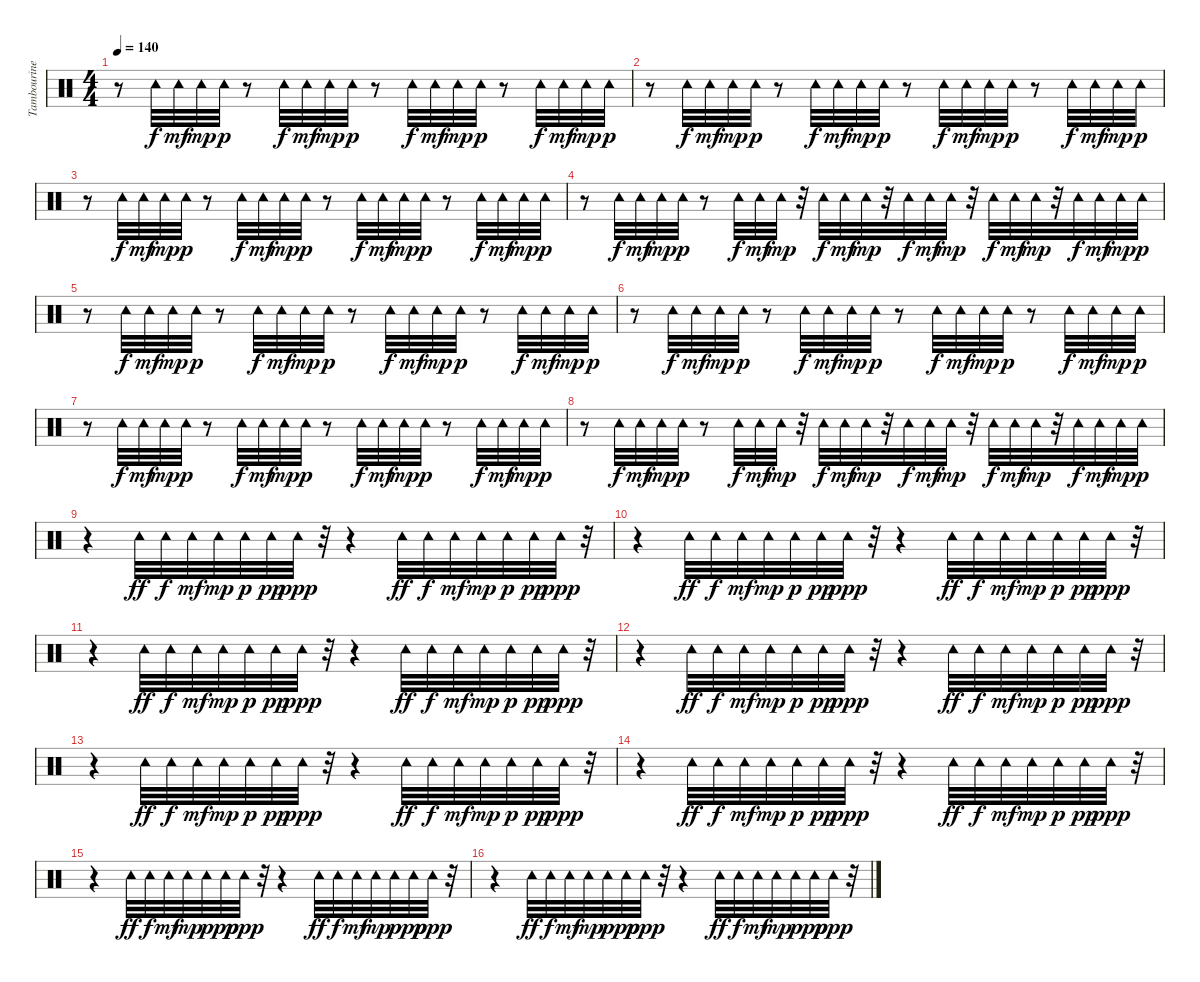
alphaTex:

\track ("Tambourine" "Tambourine") {instrument percussion}
\staff {score}
\articulation defaults
\ts (4 4)
\tempo 140
\clef neutral
\ks c
r.8{dy ppp} "Tambourine (hit)".32{dy f} "Tambourine (hit)".32{dy mf} "Tambourine (hit)".32{dy mp} "Tambourine (hit)".32{dy p} r.8 "Tambourine (hit)".32{dy f} "Tambourine (hit)".32{dy mf} "Tambourine (hit)".32{dy mp} "Tambourine (hit)".32{dy p} r.8 "Tambourine (hit)".32{dy f} "Tambourine (hit)".32{dy mf} "Tambourine (hit)".32{dy mp} "Tambourine (hit)".32{dy p} r.8 "Tambourine (hit)".32{dy f} "Tambourine (hit)".32{dy mf} "Tambourine (hit)".32{dy mp} "Tambourine (hit)".32{dy p} |
r.8 "Tambourine (hit)".32{dy f} "Tambourine (hit)".32{dy mf} "Tambourine (hit)".32{dy mp} "Tambourine (hit)".32{dy p} r.8 "Tambourine (hit)".32{dy f} "Tambourine (hit)".32{dy mf} "Tambourine (hit)".32{dy mp} "Tambourine (hit)".32{dy p} r.8 "Tambourine (hit)".32{dy f} "Tambourine (hit)".32{dy mf} "Tambourine (hit)".32{dy mp} "Tambourine (hit)".32{dy p} r.8 "Tambourine (hit)".32{dy f} "Tambourine (hit)".32{dy mf} "Tambourine (hit)".32{dy mp} "Tambourine (hit)".32{dy p} |
r.8 "Tambourine (hit)".32{dy f} "Tambourine (hit)".32{dy mf} "Tambourine (hit)".32{dy mp} "Tambourine (hit)".32{dy p} r.8 "Tambourine (hit)".32{dy f} "Tambourine (hit)".32{dy mf} "Tambourine (hit)".32{dy mp} "Tambourine (hit)".32{dy p} r.8 "Tambourine (hit)".32{dy f} "Tambourine (hit)".32{dy mf} "Tambourine (hit)".32{dy mp} "Tambourine (hit)".32{dy p} r.8 "Tambourine (hit)".32{dy f} "Tambourine (hit)".32{dy mf} "Tambourine (hit)".32{dy mp} "Tambourine (hit)".32{dy p} |
r.8 "Tambourine (hit)".32{dy f} "Tambourine (hit)".32{dy mf} "Tambourine (hit)".32{dy mp} "Tambourine (hit)".32{dy p} r.8 "Tambourine (hit)".32{dy f} "Tambourine (hit)".32{dy mf} "Tambourine (hit)".32{dy mp} r.32 "Tambourine (hit)".32{dy f} "Tambourine (hit)".32{dy mf} "Tambourine (hit)".32{dy mp} r.32 "Tambourine (hit)".32{dy f} "Tambourine (hit)".32{dy mf} "Tambourine (hit)".32{dy mp} r.32 "Tambourine (hit)".32{dy f} "Tambourine (hit)".32{dy mf} "Tambourine (hit)".32{dy mp} r.32 "Tambourine (hit)".32{dy f} "Tambourine (hit)".32{dy mf} "Tambourine (hit)".32{dy mp} "Tambourine (hit)".32{dy p} |
r.8 "Tambourine (hit)".32{dy f} "Tambourine (hit)".32{dy mf} "Tambourine (hit)".32{dy mp} "Tambourine (hit)".32{dy p} r.8 "Tambourine (hit)".32{dy f} "Tambourine (hit)".32{dy mf} "Tambourine (hit)".32{dy mp} "Tambourine (hit)".32{dy p} r.8 "Tambourine (hit)".32{dy f} "Tambourine (hit)".32{dy mf} "Tambourine (hit)".32{dy mp} "Tambourine (hit)".32{dy p} r.8 "Tambourine (hit)".32{dy f} "Tambourine (hit)".32{dy mf} "Tambourine (hit)".32{dy mp} "Tambourine (hit)".32{dy p} |
r.8 "Tambourine (hit)".32{dy f} "Tambourine (hit)".32{dy mf} "Tambourine (hit)".32{dy mp} "Tambourine (hit)".32{dy p} r.8 "Tambourine (hit)".32{dy f} "Tambourine (hit)".32{dy mf} "Tambourine (hit)".32{dy mp} "Tambourine (hit)".32{dy p} r.8 "Tambourine (hit)".32{dy f} "Tambourine (hit)".32{dy mf} "Tambourine (hit)".32{dy mp} "Tambourine (hit)".32{dy p} r.8 "Tambourine (hit)".32{dy f} "Tambourine (hit)".32{dy mf} "Tambourine (hit)".32{dy mp} "Tambourine (hit)".32{dy p} |
r.8 "Tambourine (hit)".32{dy f} "Tambourine (hit)".32{dy mf} "Tambourine (hit)".32{dy mp} "Tambourine (hit)".32{dy p} r.8 "Tambourine (hit)".32{dy f} "Tambourine (hit)".32{dy mf} "Tambourine (hit)".32{dy mp} "Tambourine (hit)".32{dy p} r.8 "Tambourine (hit)".32{dy f} "Tambourine (hit)".32{dy mf} "Tambourine (hit)".32{dy mp} "Tambourine (hit)".32{dy p} r.8 "Tambourine (hit)".32{dy f} "Tambourine (hit)".32{dy mf} "Tambourine (hit)".32{dy mp} "Tambourine (hit)".32{dy p} |
r.8 "Tambourine (hit)".32{dy f} "Tambourine (hit)".32{dy mf} "Tambourine (hit)".32{dy mp} "Tambourine (hit)".32{dy p} r.8 "Tambourine (hit)".32{dy f} "Tambourine (hit)".32{dy mf} "Tambourine (hit)".32{dy mp} r.32 "Tambourine (hit)".32{dy f} "Tambourine (hit)".32{dy mf} "Tambourine (hit)".32{dy mp} r.32 "Tambourine (hit)".32{dy f} "Tambourine (hit)".32{dy mf} "Tambourine (hit)".32{dy mp} r.32 "Tambourine (hit)".32{dy f} "Tambourine (hit)".32{dy mf} "Tambourine (hit)".32{dy mp} r.32 "Tambourine (hit)".32{dy f} "Tambourine (hit)".32{dy mf} "Tambourine (hit)".32{dy mp} "Tambourine (hit)".32{dy p} |
r.4 "Tambourine (hit)".32{dy ff} "Tambourine (hit)".32{dy f} "Tambourine (hit)".32{dy mf} "Tambourine (hit)".32{dy mp} "Tambourine (hit)".32{dy p} "Tambourine (hit)".32{dy pp} "Tambourine (hit)".32{dy ppp} r.32 r.4 "Tambourine (hit)".32{dy ff} "Tambourine (hit)".32{dy f} "Tambourine (hit)".32{dy mf} "Tambourine (hit)".32{dy mp} "Tambourine (hit)".32{dy p} "Tambourine (hit)".32{dy pp} "Tambourine (hit)".32{dy ppp} r.32 |
r.4 "Tambourine (hit)".32{dy ff} "Tambourine (hit)".32{dy f} "Tambourine (hit)".32{dy mf} "Tambourine (hit)".32{dy mp} "Tambourine (hit)".32{dy p} "Tambourine (hit)".32{dy pp} "Tambourine (hit)".32{dy ppp} r.32 r.4 "Tambourine (hit)".32{dy ff} "Tambourine (hit)".32{dy f} "Tambourine (hit)".32{dy mf} "Tambourine (hit)".32{dy mp} "Tambourine (hit)".32{dy p} "Tambourine (hit)".32{dy pp} "Tambourine (hit)".32{dy ppp} r.32 |
r.4 "Tambourine (hit)".32{dy ff} "Tambourine (hit)".32{dy f} "Tambourine (hit)".32{dy mf} "Tambourine (hit)".32{dy mp} "Tambourine (hit)".32{dy p} "Tambourine (hit)".32{dy pp} "Tambourine (hit)".32{dy ppp} r.32 r.4 "Tambourine (hit)".32{dy ff} "Tambourine (hit)".32{dy f} "Tambourine (hit)".32{dy mf} "Tambourine (hit)".32{dy mp} "Tambourine (hit)".32{dy p} "Tambourine (hit)".32{dy pp} "Tambourine (hit)".32{dy ppp} r.32 |
r.4 "Tambourine (hit)".32{dy ff} "Tambourine (hit)".32{dy f} "Tambourine (hit)".32{dy mf} "Tambourine (hit)".32{dy mp} "Tambourine (hit)".32{dy p} "Tambourine (hit)".32{dy pp} "Tambourine (hit)".32{dy ppp} r.32 r.4 "Tambourine (hit)".32{dy ff} "Tambourine (hit)".32{dy f} "Tambourine (hit)".32{dy mf} "Tambourine (hit)".32{dy mp} "Tambourine (hit)".32{dy p} "Tambourine (hit)".32{dy pp} "Tambourine (hit)".32{dy ppp} r.32 |
r.4 "Tambourine (hit)".32{dy ff} "Tambourine (hit)".32{dy f} "Tambourine (hit)".32{dy mf} "Tambourine (hit)".32{dy mp} "Tambourine (hit)".32{dy p} "Tambourine (hit)".32{dy pp} "Tambourine (hit)".32{dy ppp} r.32 r.4 "Tambourine (hit)".32{dy ff} "Tambourine (hit)".32{dy f} "Tambourine (hit)".32{dy mf} "Tambourine (hit)".32{dy mp} "Tambourine (hit)".32{dy p} "Tambourine (hit)".32{dy pp} "Tambourine (hit)".32{dy ppp} r.32 |
r.4 "Tambourine (hit)".32{dy ff} "Tambourine (hit)".32{dy f} "Tambourine (hit)".32{dy mf} "Tambourine (hit)".32{dy mp} "Tambourine (hit)".32{dy p} "Tambourine (hit)".32{dy pp} "Tambourine (hit)".32{dy ppp} r.32 r.4 "Tambourine (hit)".32{dy ff} "Tambourine (hit)".32{dy f} "Tambourine (hit)".32{dy mf} "Tambourine (hit)".32{dy mp} "Tambourine (hit)".32{dy p} "Tambourine (hit)".32{dy pp} "Tambourine (hit)".32{dy ppp} r.32 |
r.4 "Tambourine (hit)".32{dy ff} "Tambourine (hit)".32{dy f} "Tambourine (hit)".32{dy mf} "Tambourine (hit)".32{dy mp} "Tambourine (hit)".32{dy p} "Tambourine (hit)".32{dy pp} "Tambourine (hit)".32{dy ppp} r.32 r.4 "Tambourine (hit)".32{dy ff} "Tambourine (hit)".32{dy f} "Tambourine (hit)".32{dy mf} "Tambourine (hit)".32{dy mp} "Tambourine (hit)".32{dy p} "Tambourine (hit)".32{dy pp} "Tambourine (hit)".32{dy ppp} r.32 |
r.4 "Tambourine (hit)".32{dy ff} "Tambourine (hit)".32{dy f} "Tambourine (hit)".32{dy mf} "Tambourine (hit)".32{dy mp} "Tambourine (hit)".32{dy p} "Tambourine (hit)".32{dy pp} "Tambourine (hit)".32{dy ppp} r.32 r.4 "Tambourine (hit)".32{dy ff} "Tambourine (hit)".32{dy f} "Tambourine (hit)".32{dy mf} "Tambourine (hit)".32{dy mp} "Tambourine (hit)".32{dy p} "Tambourine (hit)".32{dy pp} "Tambourine (hit)".32{dy ppp} r.32
